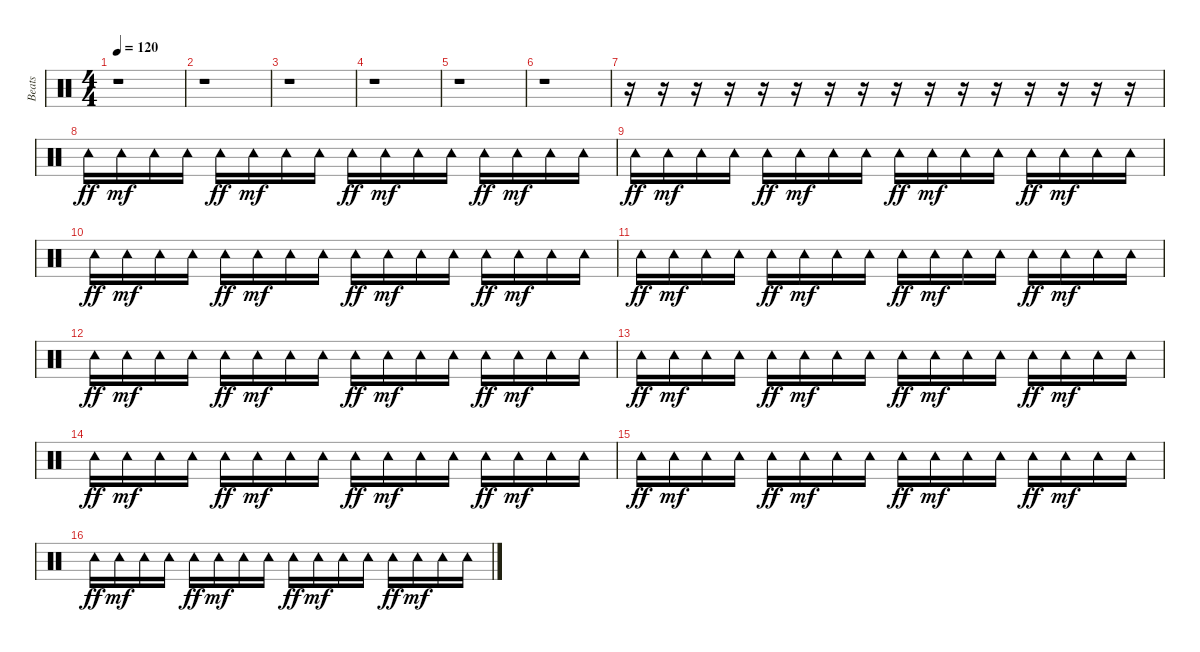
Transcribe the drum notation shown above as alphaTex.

\track ("Beats" "Beats") {instrument percussion}
\staff {score}
\articulation defaults
\ts (4 4)
\tempo 120
\clef neutral
\ks c
r.1{dy ff} |
r.1 |
r.1 |
r.1 |
r.1 |
r.1 |
r.16 r.16 r.16 r.16 r.16 r.16 r.16 r.16 r.16 r.16 r.16 r.16 r.16 r.16 r.16 r.16 |
"Tambourine (hit)".16 "Tambourine (hit)".16{dy mf} "Tambourine (hit)".16 "Tambourine (hit)".16 "Tambourine (hit)".16{dy ff} "Tambourine (hit)".16{dy mf} "Tambourine (hit)".16 "Tambourine (hit)".16 "Tambourine (hit)".16{dy ff} "Tambourine (hit)".16{dy mf} "Tambourine (hit)".16 "Tambourine (hit)".16 "Tambourine (hit)".16{dy ff} "Tambourine (hit)".16{dy mf} "Tambourine (hit)".16 "Tambourine (hit)".16 |
"Tambourine (hit)".16{dy ff} "Tambourine (hit)".16{dy mf} "Tambourine (hit)".16 "Tambourine (hit)".16 "Tambourine (hit)".16{dy ff} "Tambourine (hit)".16{dy mf} "Tambourine (hit)".16 "Tambourine (hit)".16 "Tambourine (hit)".16{dy ff} "Tambourine (hit)".16{dy mf} "Tambourine (hit)".16 "Tambourine (hit)".16 "Tambourine (hit)".16{dy ff} "Tambourine (hit)".16{dy mf} "Tambourine (hit)".16 "Tambourine (hit)".16 |
"Tambourine (hit)".16{dy ff} "Tambourine (hit)".16{dy mf} "Tambourine (hit)".16 "Tambourine (hit)".16 "Tambourine (hit)".16{dy ff} "Tambourine (hit)".16{dy mf} "Tambourine (hit)".16 "Tambourine (hit)".16 "Tambourine (hit)".16{dy ff} "Tambourine (hit)".16{dy mf} "Tambourine (hit)".16 "Tambourine (hit)".16 "Tambourine (hit)".16{dy ff} "Tambourine (hit)".16{dy mf} "Tambourine (hit)".16 "Tambourine (hit)".16 |
"Tambourine (hit)".16{dy ff} "Tambourine (hit)".16{dy mf} "Tambourine (hit)".16 "Tambourine (hit)".16 "Tambourine (hit)".16{dy ff} "Tambourine (hit)".16{dy mf} "Tambourine (hit)".16 "Tambourine (hit)".16 "Tambourine (hit)".16{dy ff} "Tambourine (hit)".16{dy mf} "Tambourine (hit)".16 "Tambourine (hit)".16 "Tambourine (hit)".16{dy ff} "Tambourine (hit)".16{dy mf} "Tambourine (hit)".16 "Tambourine (hit)".16 |
"Tambourine (hit)".16{dy ff} "Tambourine (hit)".16{dy mf} "Tambourine (hit)".16 "Tambourine (hit)".16 "Tambourine (hit)".16{dy ff} "Tambourine (hit)".16{dy mf} "Tambourine (hit)".16 "Tambourine (hit)".16 "Tambourine (hit)".16{dy ff} "Tambourine (hit)".16{dy mf} "Tambourine (hit)".16 "Tambourine (hit)".16 "Tambourine (hit)".16{dy ff} "Tambourine (hit)".16{dy mf} "Tambourine (hit)".16 "Tambourine (hit)".16 |
"Tambourine (hit)".16{dy ff} "Tambourine (hit)".16{dy mf} "Tambourine (hit)".16 "Tambourine (hit)".16 "Tambourine (hit)".16{dy ff} "Tambourine (hit)".16{dy mf} "Tambourine (hit)".16 "Tambourine (hit)".16 "Tambourine (hit)".16{dy ff} "Tambourine (hit)".16{dy mf} "Tambourine (hit)".16 "Tambourine (hit)".16 "Tambourine (hit)".16{dy ff} "Tambourine (hit)".16{dy mf} "Tambourine (hit)".16 "Tambourine (hit)".16 |
"Tambourine (hit)".16{dy ff} "Tambourine (hit)".16{dy mf} "Tambourine (hit)".16 "Tambourine (hit)".16 "Tambourine (hit)".16{dy ff} "Tambourine (hit)".16{dy mf} "Tambourine (hit)".16 "Tambourine (hit)".16 "Tambourine (hit)".16{dy ff} "Tambourine (hit)".16{dy mf} "Tambourine (hit)".16 "Tambourine (hit)".16 "Tambourine (hit)".16{dy ff} "Tambourine (hit)".16{dy mf} "Tambourine (hit)".16 "Tambourine (hit)".16 |
"Tambourine (hit)".16{dy ff} "Tambourine (hit)".16{dy mf} "Tambourine (hit)".16 "Tambourine (hit)".16 "Tambourine (hit)".16{dy ff} "Tambourine (hit)".16{dy mf} "Tambourine (hit)".16 "Tambourine (hit)".16 "Tambourine (hit)".16{dy ff} "Tambourine (hit)".16{dy mf} "Tambourine (hit)".16 "Tambourine (hit)".16 "Tambourine (hit)".16{dy ff} "Tambourine (hit)".16{dy mf} "Tambourine (hit)".16 "Tambourine (hit)".16 |
"Tambourine (hit)".16{dy ff} "Tambourine (hit)".16{dy mf} "Tambourine (hit)".16 "Tambourine (hit)".16 "Tambourine (hit)".16{dy ff} "Tambourine (hit)".16{dy mf} "Tambourine (hit)".16 "Tambourine (hit)".16 "Tambourine (hit)".16{dy ff} "Tambourine (hit)".16{dy mf} "Tambourine (hit)".16 "Tambourine (hit)".16 "Tambourine (hit)".16{dy ff} "Tambourine (hit)".16{dy mf} "Tambourine (hit)".16 "Tambourine (hit)".16
